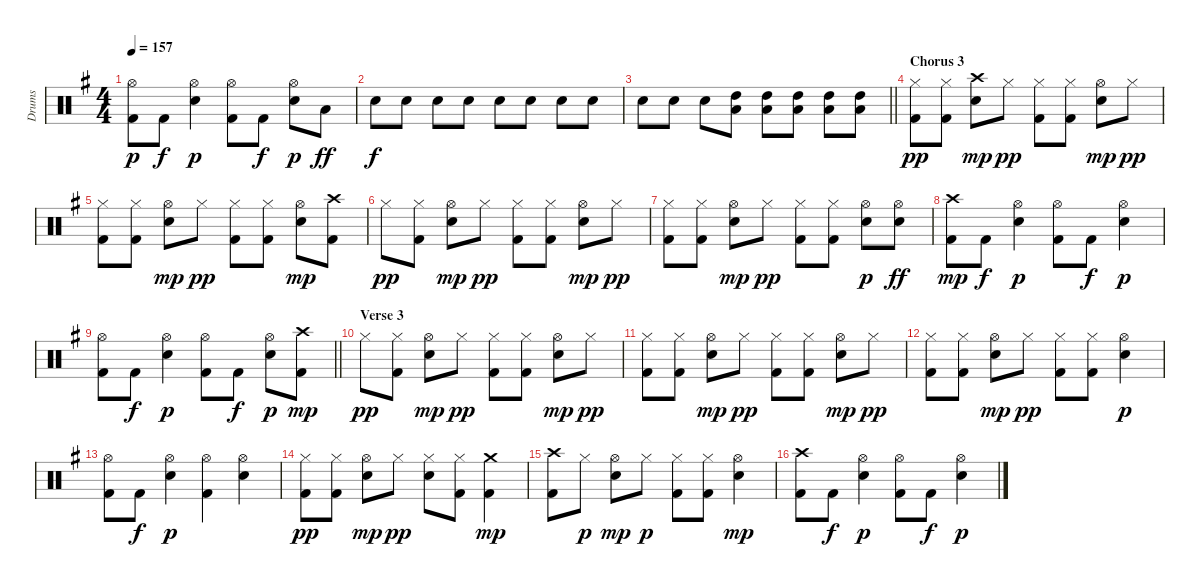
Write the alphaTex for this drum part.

\track ("Drums" "Drums") {instrument percussion}
\staff {score}
\articulation defaults
\ts (4 4)
\tempo 157
\clef neutral
\ks g
("Kick (hit) 2" "Hi-Hat (open)").8{dy p} "Kick (hit) 2".8{dy f} ("Electric Snare (hit)" "Hi-Hat (open)").4{dy p} ("Kick (hit) 2" "Hi-Hat (open)").8 "Kick (hit) 2".8{dy f} ("Electric Snare (hit)" "Hi-Hat (open)").8{dy p} "Low Tom (hit)".8{dy ff} |
"Electric Snare (hit)".8{dy f} "Electric Snare (hit)".8 "Electric Snare (hit)".8 "Electric Snare (hit)".8 "Electric Snare (hit)".8 "Electric Snare (hit)".8 "Electric Snare (hit)".8 "Electric Snare (hit)".8 |
\barLineRight lightlight "Electric Snare (hit)".8 "Electric Snare (hit)".8 "Electric Snare (hit)".8
("Low Tom (hit)" "High Tom (hit)").8 ("High Tom (hit)" "Low Tom (hit)").8 ("High Tom (hit)" "Low Tom (hit)").8 ("High Tom (hit)" "Low Tom (hit)").8 ("High Tom (hit)" "Low Tom (hit)").8 |
\section ("" "Chorus 3")
("Kick (hit) 2" "Hi-Hat (closed)").8{dy pp} ("Kick (hit) 2" "Hi-Hat (closed)").8 ("Electric Snare (hit)" "Crash high (hit)").8{dy mp} "Hi-Hat (closed)".8{dy pp} ("Kick (hit) 2" "Hi-Hat (closed)").8 ("Kick (hit) 2" "Hi-Hat (closed)").8 ("Electric Snare (hit)" "Hi-Hat (open)").8{dy mp} "Hi-Hat (closed)".8{dy pp} |
("Kick (hit) 2" "Hi-Hat (closed)").8 ("Kick (hit) 2" "Hi-Hat (closed)").8 ("Electric Snare (hit)" "Hi-Hat (open)").8{dy mp} "Hi-Hat (closed)".8{dy pp} ("Kick (hit) 2" "Hi-Hat (closed)").8 ("Kick (hit) 2" "Hi-Hat (closed)").8 ("Electric Snare (hit)" "Hi-Hat (open)").8{dy mp} ("Crash high (hit)" "Kick (hit) 2").8 |
"Hi-Hat (closed)".8{dy pp} ("Kick (hit) 2" "Hi-Hat (closed)").8 ("Electric Snare (hit)" "Hi-Hat (open)").8{dy mp} "Hi-Hat (closed)".8{dy pp} ("Kick (hit) 2" "Hi-Hat (closed)").8 ("Kick (hit) 2" "Hi-Hat (closed)").8 ("Electric Snare (hit)" "Hi-Hat (open)").8{dy mp} "Hi-Hat (closed)".8{dy pp} |
("Kick (hit) 2" "Hi-Hat (closed)").8 ("Kick (hit) 2" "Hi-Hat (closed)").8 ("Electric Snare (hit)" "Hi-Hat (open)").8{dy mp} "Hi-Hat (closed)".8{dy pp} ("Kick (hit) 2" "Hi-Hat (closed)").8 ("Kick (hit) 2" "Hi-Hat (closed)").8 ("Electric Snare (hit)" "Hi-Hat (open)").8{dy p} ("Hi-Hat (open)" "Electric Snare (hit)").8{dy ff} |
("Kick (hit) 2" "Crash high (hit)").8{dy mp} "Kick (hit) 2".8{dy f} ("Electric Snare (hit)" "Hi-Hat (open)").4{dy p} ("Kick (hit) 2" "Hi-Hat (open)").8 "Kick (hit) 2".8{dy f} ("Electric Snare (hit)" "Hi-Hat (open)").4{dy p} |
\barLineRight lightlight
("Kick (hit) 2" "Hi-Hat (open)").8 "Kick (hit) 2".8{dy f} ("Electric Snare (hit)" "Hi-Hat (open)").4{dy p} ("Kick (hit) 2" "Hi-Hat (open)").8 "Kick (hit) 2".8{dy f} ("Electric Snare (hit)" "Hi-Hat (open)").8{dy p} ("Kick (hit) 2" "Crash high (hit)").8{dy mp} |
\section ("" "Verse 3")
"Hi-Hat (closed)".8{dy pp} ("Kick (hit) 2" "Hi-Hat (closed)").8 ("Electric Snare (hit)" "Hi-Hat (open)").8{dy mp} "Hi-Hat (closed)".8{dy pp} ("Kick (hit) 2" "Hi-Hat (closed)").8 ("Kick (hit) 2" "Hi-Hat (closed)").8 ("Electric Snare (hit)" "Hi-Hat (open)").8{dy mp} "Hi-Hat (closed)".8{dy pp} |
("Kick (hit) 2" "Hi-Hat (closed)").8 ("Kick (hit) 2" "Hi-Hat (closed)").8 ("Electric Snare (hit)" "Hi-Hat (open)").8{dy mp} "Hi-Hat (closed)".8{dy pp} ("Kick (hit) 2" "Hi-Hat (closed)").8 ("Kick (hit) 2" "Hi-Hat (closed)").8 ("Electric Snare (hit)" "Hi-Hat (open)").8{dy mp} "Hi-Hat (closed)".8{dy pp} |
("Kick (hit) 2" "Hi-Hat (closed)").8 ("Kick (hit) 2" "Hi-Hat (closed)").8 ("Electric Snare (hit)" "Hi-Hat (open)").8{dy mp} "Hi-Hat (closed)".8{dy pp} ("Kick (hit) 2" "Hi-Hat (closed)").8 ("Kick (hit) 2" "Hi-Hat (closed)").8 ("Electric Snare (hit)" "Hi-Hat (open)").4{dy p} |
("Kick (hit) 2" "Hi-Hat (open)").8 "Kick (hit) 2".8{dy f} ("Electric Snare (hit)" "Hi-Hat (open)").4{dy p} ("Kick (hit) 2" "Hi-Hat (open)").4 ("Electric Snare (hit)" "Hi-Hat (open)").4 |
("Kick (hit) 2" "Hi-Hat (closed)").8{dy pp} ("Kick (hit) 2" "Hi-Hat (closed)").8 ("Electric Snare (hit)" "Hi-Hat (open)").8{dy mp} "Hi-Hat (closed)".8{dy pp} ("Electric Snare (hit)" "Hi-Hat (closed)").8 ("Kick (hit) 2" "Hi-Hat (closed)").8 ("Kick (hit) 2" "Crash medium (hit)").4{dy mp} |
("Kick (hit) 2" "Crash high (hit)").8 "Hi-Hat (closed)".8{dy p} ("Electric Snare (hit)" "Hi-Hat (open)").8{dy mp} "Hi-Hat (closed)".8{dy p} ("Kick (hit) 2" "Hi-Hat (closed)").8 ("Kick (hit) 2" "Hi-Hat (closed)").8 ("Electric Snare (hit)" "Hi-Hat (open)").4{dy mp} |
("Kick (hit) 2" "Crash high (hit)").8 "Kick (hit) 2".8{dy f} ("Electric Snare (hit)" "Hi-Hat (open)").4{dy p} ("Kick (hit) 2" "Hi-Hat (open)").8 "Kick (hit) 2".8{dy f} ("Electric Snare (hit)" "Hi-Hat (open)").4{dy p}
